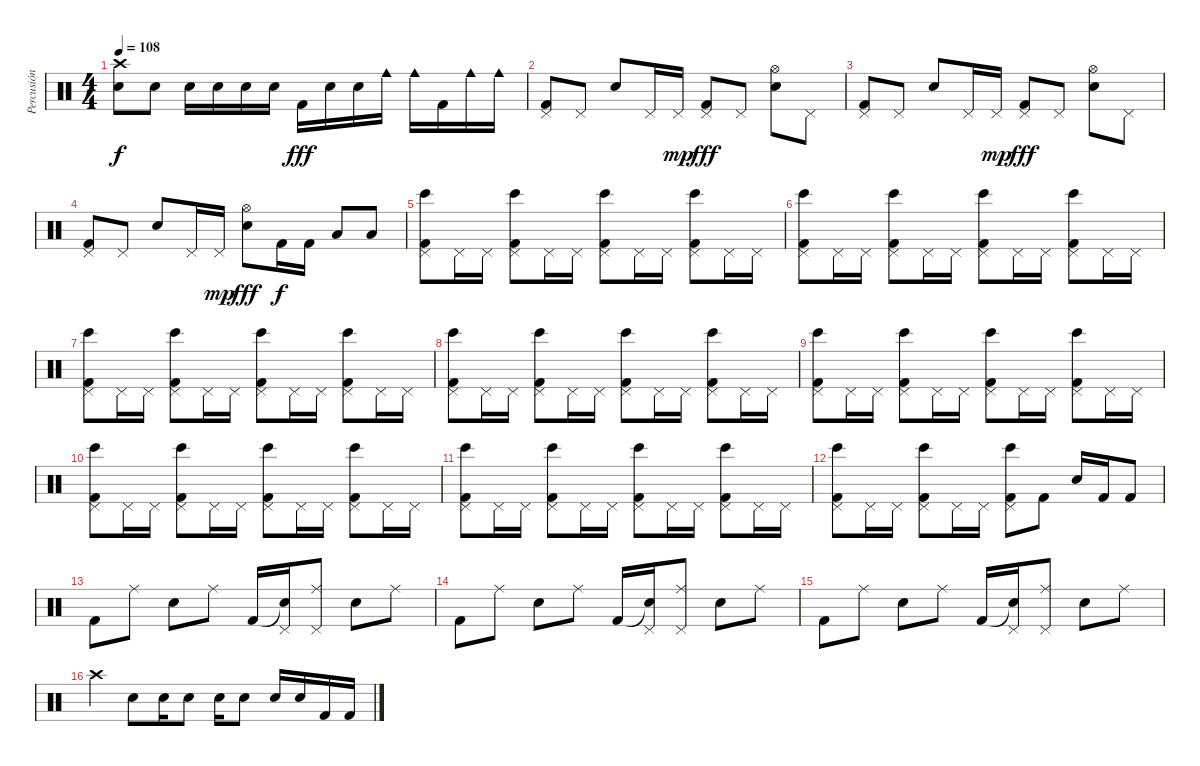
\track ("Percusión" "Percusión") {instrument percussion}
\staff {score}
\articulation defaults
\ts (4 4)
\tempo 108
\clef neutral
\ks c
("Crash high (hit)" "Snare (hit) 2").8{dy f} "Snare (hit) 2".8 "Snare (hit) 2".16 "Snare (hit) 2".16 "Snare (hit) 2".16 "Snare (hit) 2".16 "Kick (hit) 2".16{dy fff} "Snare (hit) 2".16 "Snare (hit) 2".16 "Cowbell medium (hit)".16 "Cowbell medium (hit)".16 "Kick (hit) 2".16 "Cowbell medium (hit)".16 "Cowbell medium (hit)".16 |
("Pedal Hi-Hat (hit)" "Kick (hit) 2").8 "Pedal Hi-Hat (hit)".8 "Snare (hit) 2".8 "Pedal Hi-Hat (hit)".16 "Pedal Hi-Hat (hit)".16{dy mp} ("Pedal Hi-Hat (hit)" "Kick (hit) 2").8{dy fff} "Pedal Hi-Hat (hit)".8 ("Snare (hit) 2" "Hi-Hat (open)").8 "Pedal Hi-Hat (hit)".8 |
("Pedal Hi-Hat (hit)" "Kick (hit) 2").8 "Pedal Hi-Hat (hit)".8 "Snare (hit) 2".8 "Pedal Hi-Hat (hit)".16 "Pedal Hi-Hat (hit)".16{dy mp} ("Pedal Hi-Hat (hit)" "Kick (hit) 2").8{dy fff} "Pedal Hi-Hat (hit)".8 ("Snare (hit) 2" "Hi-Hat (open)").8 "Pedal Hi-Hat (hit)".8 |
("Pedal Hi-Hat (hit)" "Kick (hit) 2").8 "Pedal Hi-Hat (hit)".8 "Snare (hit) 2".8 "Pedal Hi-Hat (hit)".16 "Pedal Hi-Hat (hit)".16{dy mp} ("Hi-Hat (open)" "Snare (hit) 2").8{dy fff} "Kick (hit) 2".16{dy f} "Kick (hit) 2".16 "Low Floor Tom (hit)".8 "Low Floor Tom (hit)".8 |
("Pedal Hi-Hat (hit)" "Kick (hit) 2" "Bongo High (hit)").8 "Pedal Hi-Hat (hit)".16 "Pedal Hi-Hat (hit)".16 ("Pedal Hi-Hat (hit)" "Kick (hit) 2" "Bongo High (hit)").8 "Pedal Hi-Hat (hit)".16 "Pedal Hi-Hat (hit)".16 ("Pedal Hi-Hat (hit)" "Kick (hit) 2" "Bongo High (hit)").8 "Pedal Hi-Hat (hit)".16 "Pedal Hi-Hat (hit)".16 ("Pedal Hi-Hat (hit)" "Kick (hit) 2" "Bongo High (hit)").8 "Pedal Hi-Hat (hit)".16 "Pedal Hi-Hat (hit)".16 |
("Pedal Hi-Hat (hit)" "Kick (hit) 2" "Bongo High (hit)").8 "Pedal Hi-Hat (hit)".16 "Pedal Hi-Hat (hit)".16 ("Pedal Hi-Hat (hit)" "Kick (hit) 2" "Bongo High (hit)").8 "Pedal Hi-Hat (hit)".16 "Pedal Hi-Hat (hit)".16 ("Pedal Hi-Hat (hit)" "Kick (hit) 2" "Bongo High (hit)").8 "Pedal Hi-Hat (hit)".16 "Pedal Hi-Hat (hit)".16 ("Pedal Hi-Hat (hit)" "Kick (hit) 2" "Bongo High (hit)").8 "Pedal Hi-Hat (hit)".16 "Pedal Hi-Hat (hit)".16 |
("Pedal Hi-Hat (hit)" "Kick (hit) 2" "Bongo High (hit)").8 "Pedal Hi-Hat (hit)".16 "Pedal Hi-Hat (hit)".16 ("Pedal Hi-Hat (hit)" "Kick (hit) 2" "Bongo High (hit)").8 "Pedal Hi-Hat (hit)".16 "Pedal Hi-Hat (hit)".16 ("Pedal Hi-Hat (hit)" "Kick (hit) 2" "Bongo High (hit)").8 "Pedal Hi-Hat (hit)".16 "Pedal Hi-Hat (hit)".16 ("Pedal Hi-Hat (hit)" "Kick (hit) 2" "Bongo High (hit)").8 "Pedal Hi-Hat (hit)".16 "Pedal Hi-Hat (hit)".16 |
("Pedal Hi-Hat (hit)" "Kick (hit) 2" "Bongo High (hit)").8 "Pedal Hi-Hat (hit)".16 "Pedal Hi-Hat (hit)".16 ("Pedal Hi-Hat (hit)" "Kick (hit) 2" "Bongo High (hit)").8 "Pedal Hi-Hat (hit)".16 "Pedal Hi-Hat (hit)".16 ("Pedal Hi-Hat (hit)" "Kick (hit) 2" "Bongo High (hit)").8 "Pedal Hi-Hat (hit)".16 "Pedal Hi-Hat (hit)".16 ("Pedal Hi-Hat (hit)" "Kick (hit) 2" "Bongo High (hit)").8 "Pedal Hi-Hat (hit)".16 "Pedal Hi-Hat (hit)".16 |
("Pedal Hi-Hat (hit)" "Kick (hit) 2" "Bongo High (hit)").8 "Pedal Hi-Hat (hit)".16 "Pedal Hi-Hat (hit)".16 ("Pedal Hi-Hat (hit)" "Kick (hit) 2" "Bongo High (hit)").8 "Pedal Hi-Hat (hit)".16 "Pedal Hi-Hat (hit)".16 ("Pedal Hi-Hat (hit)" "Kick (hit) 2" "Bongo High (hit)").8 "Pedal Hi-Hat (hit)".16 "Pedal Hi-Hat (hit)".16 ("Pedal Hi-Hat (hit)" "Kick (hit) 2" "Bongo High (hit)").8 "Pedal Hi-Hat (hit)".16 "Pedal Hi-Hat (hit)".16 |
("Pedal Hi-Hat (hit)" "Kick (hit) 2" "Bongo High (hit)").8 "Pedal Hi-Hat (hit)".16 "Pedal Hi-Hat (hit)".16 ("Pedal Hi-Hat (hit)" "Kick (hit) 2" "Bongo High (hit)").8 "Pedal Hi-Hat (hit)".16 "Pedal Hi-Hat (hit)".16 ("Pedal Hi-Hat (hit)" "Kick (hit) 2" "Bongo High (hit)").8 "Pedal Hi-Hat (hit)".16 "Pedal Hi-Hat (hit)".16 ("Pedal Hi-Hat (hit)" "Kick (hit) 2" "Bongo High (hit)").8 "Pedal Hi-Hat (hit)".16 "Pedal Hi-Hat (hit)".16 |
("Pedal Hi-Hat (hit)" "Kick (hit) 2" "Bongo High (hit)").8 "Pedal Hi-Hat (hit)".16 "Pedal Hi-Hat (hit)".16 ("Pedal Hi-Hat (hit)" "Kick (hit) 2" "Bongo High (hit)").8 "Pedal Hi-Hat (hit)".16 "Pedal Hi-Hat (hit)".16 ("Pedal Hi-Hat (hit)" "Kick (hit) 2" "Bongo High (hit)").8 "Pedal Hi-Hat (hit)".16 "Pedal Hi-Hat (hit)".16 ("Pedal Hi-Hat (hit)" "Kick (hit) 2" "Bongo High (hit)").8 "Pedal Hi-Hat (hit)".16 "Pedal Hi-Hat (hit)".16 |
("Pedal Hi-Hat (hit)" "Kick (hit) 2" "Bongo High (hit)").8 "Pedal Hi-Hat (hit)".16 "Pedal Hi-Hat (hit)".16 ("Pedal Hi-Hat (hit)" "Kick (hit) 2" "Bongo High (hit)").8 "Pedal Hi-Hat (hit)".16 "Pedal Hi-Hat (hit)".16 ("Pedal Hi-Hat (hit)" "Kick (hit) 2" "Bongo High (hit)").8 "Kick (hit) 2".8 "Snare (hit) 2".16 "Kick (hit) 2".16 "Kick (hit) 2".8 |
"Kick (hit) 2".8 "Ride (middle)".8 "Snare (hit) 2".8 "Ride (middle)".8 "Kick (hit) 2".16 ("Snare (hit)"{t} "Pedal Hi-Hat (hit)").16 ("Ride (middle)" "Pedal Hi-Hat (hit)").8 "Snare (hit) 2".8 "Ride (middle)".8 |
"Kick (hit) 2".8 "Ride (middle)".8 "Snare (hit) 2".8 "Ride (middle)".8 "Kick (hit) 2".16 ("Snare (hit)"{t} "Pedal Hi-Hat (hit)").16 ("Ride (middle)" "Pedal Hi-Hat (hit)").8 "Snare (hit) 2".8 "Ride (middle)".8 |
"Kick (hit) 2".8 "Ride (middle)".8 "Snare (hit) 2".8 "Ride (middle)".8 "Kick (hit) 2".16 ("Snare (hit)"{t} "Pedal Hi-Hat (hit)").16 ("Ride (middle)" "Pedal Hi-Hat (hit)").8 "Snare (hit) 2".8 "Ride (middle)".8 |
"Crash high (hit)".4 "Snare (hit) 2".8 "Snare (hit) 2".16 "Snare (hit) 2".8 "Snare (hit) 2".16 "Snare (hit) 2".8 "Snare (hit) 2".16 "Snare (hit) 2".16 "Kick (hit) 2".16 "Kick (hit) 2".16
